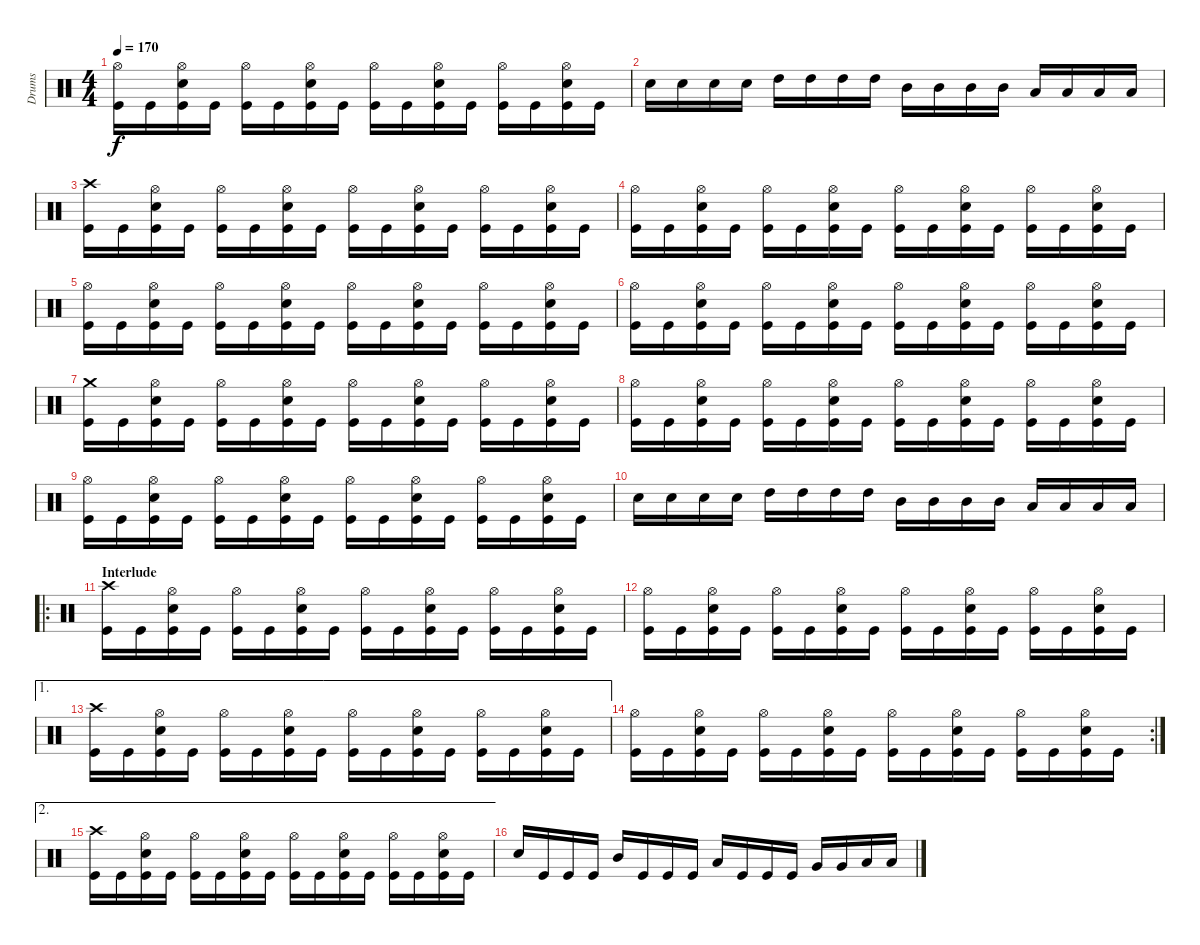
\track ("Drums" "Drums") {instrument percussion}
\staff {score}
\articulation defaults
\ts (4 4)
\tempo 170
\clef neutral
\ks c
("Hi-Hat (open)" "Kick (hit)").16{dy f} "Kick (hit)".16 ("Hi-Hat (open)" "Snare (hit) 2" "Kick (hit)").16 "Kick (hit)".16 ("Hi-Hat (open)" "Kick (hit)").16 "Kick (hit)".16 ("Hi-Hat (open)" "Snare (hit) 2" "Kick (hit)").16 "Kick (hit)".16 ("Hi-Hat (open)" "Kick (hit)").16 "Kick (hit)".16 ("Hi-Hat (open)" "Snare (hit) 2" "Kick (hit)").16 "Kick (hit)".16 ("Hi-Hat (open)" "Kick (hit)").16 "Kick (hit)".16 ("Hi-Hat (open)" "Snare (hit) 2" "Kick (hit)").16 "Kick (hit)".16 |
"Snare (hit) 2".16 "Snare (hit) 2".16 "Snare (hit) 2".16 "Snare (hit) 2".16 "High Tom (hit)".16 "High Tom (hit)".16 "High Tom (hit)".16 "High Tom (hit)".16 "Mid Tom (hit)".16 "Mid Tom (hit)".16 "Mid Tom (hit)".16 "Mid Tom (hit)".16 "Low Tom (hit)".16 "Low Tom (hit)".16 "Low Tom (hit)".16 "Low Tom (hit)".16 |
("Crash high (hit)" "Kick (hit)").16 "Kick (hit)".16 ("Hi-Hat (open)" "Snare (hit) 2" "Kick (hit)").16 "Kick (hit)".16 ("Hi-Hat (open)" "Kick (hit)").16 "Kick (hit)".16 ("Hi-Hat (open)" "Snare (hit) 2" "Kick (hit)").16 "Kick (hit)".16 ("Hi-Hat (open)" "Kick (hit)").16 "Kick (hit)".16 ("Hi-Hat (open)" "Snare (hit) 2" "Kick (hit)").16 "Kick (hit)".16 ("Hi-Hat (open)" "Kick (hit)").16 "Kick (hit)".16 ("Hi-Hat (open)" "Snare (hit) 2" "Kick (hit)").16 "Kick (hit)".16 |
("Hi-Hat (open)" "Kick (hit)").16 "Kick (hit)".16 ("Hi-Hat (open)" "Snare (hit) 2" "Kick (hit)").16 "Kick (hit)".16 ("Hi-Hat (open)" "Kick (hit)").16 "Kick (hit)".16 ("Hi-Hat (open)" "Snare (hit) 2" "Kick (hit)").16 "Kick (hit)".16 ("Hi-Hat (open)" "Kick (hit)").16 "Kick (hit)".16 ("Hi-Hat (open)" "Snare (hit) 2" "Kick (hit)").16 "Kick (hit)".16 ("Hi-Hat (open)" "Kick (hit)").16 "Kick (hit)".16 ("Hi-Hat (open)" "Snare (hit) 2" "Kick (hit)").16 "Kick (hit)".16 |
("Hi-Hat (open)" "Kick (hit)").16 "Kick (hit)".16 ("Hi-Hat (open)" "Snare (hit) 2" "Kick (hit)").16 "Kick (hit)".16 ("Hi-Hat (open)" "Kick (hit)").16 "Kick (hit)".16 ("Hi-Hat (open)" "Snare (hit) 2" "Kick (hit)").16 "Kick (hit)".16 ("Hi-Hat (open)" "Kick (hit)").16 "Kick (hit)".16 ("Hi-Hat (open)" "Snare (hit) 2" "Kick (hit)").16 "Kick (hit)".16 ("Hi-Hat (open)" "Kick (hit)").16 "Kick (hit)".16 ("Hi-Hat (open)" "Snare (hit) 2" "Kick (hit)").16 "Kick (hit)".16 |
("Hi-Hat (open)" "Kick (hit)").16 "Kick (hit)".16 ("Hi-Hat (open)" "Snare (hit) 2" "Kick (hit)").16 "Kick (hit)".16 ("Hi-Hat (open)" "Kick (hit)").16 "Kick (hit)".16 ("Hi-Hat (open)" "Snare (hit) 2" "Kick (hit)").16 "Kick (hit)".16 ("Hi-Hat (open)" "Kick (hit)").16 "Kick (hit)".16 ("Hi-Hat (open)" "Snare (hit) 2" "Kick (hit)").16 "Kick (hit)".16 ("Hi-Hat (open)" "Kick (hit)").16 "Kick (hit)".16 ("Hi-Hat (open)" "Snare (hit) 2" "Kick (hit)").16 "Kick (hit)".16 |
("Crash medium (hit)" "Kick (hit)").16 "Kick (hit)".16 ("Hi-Hat (open)" "Snare (hit) 2" "Kick (hit)").16 "Kick (hit)".16 ("Hi-Hat (open)" "Kick (hit)").16 "Kick (hit)".16 ("Hi-Hat (open)" "Snare (hit) 2" "Kick (hit)").16 "Kick (hit)".16 ("Hi-Hat (open)" "Kick (hit)").16 "Kick (hit)".16 ("Hi-Hat (open)" "Snare (hit) 2" "Kick (hit)").16 "Kick (hit)".16 ("Hi-Hat (open)" "Kick (hit)").16 "Kick (hit)".16 ("Hi-Hat (open)" "Snare (hit) 2" "Kick (hit)").16 "Kick (hit)".16 |
("Hi-Hat (open)" "Kick (hit)").16 "Kick (hit)".16 ("Hi-Hat (open)" "Snare (hit) 2" "Kick (hit)").16 "Kick (hit)".16 ("Hi-Hat (open)" "Kick (hit)").16 "Kick (hit)".16 ("Hi-Hat (open)" "Snare (hit) 2" "Kick (hit)").16 "Kick (hit)".16 ("Hi-Hat (open)" "Kick (hit)").16 "Kick (hit)".16 ("Hi-Hat (open)" "Snare (hit) 2" "Kick (hit)").16 "Kick (hit)".16 ("Hi-Hat (open)" "Kick (hit)").16 "Kick (hit)".16 ("Hi-Hat (open)" "Snare (hit) 2" "Kick (hit)").16 "Kick (hit)".16 |
("Hi-Hat (open)" "Kick (hit)").16 "Kick (hit)".16 ("Hi-Hat (open)" "Snare (hit) 2" "Kick (hit)").16 "Kick (hit)".16 ("Hi-Hat (open)" "Kick (hit)").16 "Kick (hit)".16 ("Hi-Hat (open)" "Snare (hit) 2" "Kick (hit)").16 "Kick (hit)".16 ("Hi-Hat (open)" "Kick (hit)").16 "Kick (hit)".16 ("Hi-Hat (open)" "Snare (hit) 2" "Kick (hit)").16 "Kick (hit)".16 ("Hi-Hat (open)" "Kick (hit)").16 "Kick (hit)".16 ("Hi-Hat (open)" "Snare (hit) 2" "Kick (hit)").16 "Kick (hit)".16 |
"Snare (hit) 2".16 "Snare (hit) 2".16 "Snare (hit) 2".16 "Snare (hit) 2".16 "High Tom (hit)".16 "High Tom (hit)".16 "High Tom (hit)".16 "High Tom (hit)".16 "Mid Tom (hit)".16 "Mid Tom (hit)".16 "Mid Tom (hit)".16 "Mid Tom (hit)".16 "Low Tom (hit)".16 "Low Tom (hit)".16 "Low Tom (hit)".16 "Low Tom (hit)".16 |
\ro
\section ("" "Interlude")
("Crash high (hit)" "Kick (hit)").16 "Kick (hit)".16 ("Hi-Hat (open)" "Snare (hit) 2" "Kick (hit)").16 "Kick (hit)".16 ("Hi-Hat (open)" "Kick (hit)").16 "Kick (hit)".16 ("Hi-Hat (open)" "Snare (hit) 2" "Kick (hit)").16 "Kick (hit)".16 ("Hi-Hat (open)" "Kick (hit)").16 "Kick (hit)".16 ("Hi-Hat (open)" "Snare (hit) 2" "Kick (hit)").16 "Kick (hit)".16 ("Hi-Hat (open)" "Kick (hit)").16 "Kick (hit)".16 ("Hi-Hat (open)" "Snare (hit) 2" "Kick (hit)").16 "Kick (hit)".16 |
("Hi-Hat (open)" "Kick (hit)").16 "Kick (hit)".16 ("Hi-Hat (open)" "Snare (hit) 2" "Kick (hit)").16 "Kick (hit)".16 ("Hi-Hat (open)" "Kick (hit)").16 "Kick (hit)".16 ("Hi-Hat (open)" "Snare (hit) 2" "Kick (hit)").16 "Kick (hit)".16 ("Hi-Hat (open)" "Kick (hit)").16 "Kick (hit)".16 ("Hi-Hat (open)" "Snare (hit) 2" "Kick (hit)").16 "Kick (hit)".16 ("Hi-Hat (open)" "Kick (hit)").16 "Kick (hit)".16 ("Hi-Hat (open)" "Snare (hit) 2" "Kick (hit)").16 "Kick (hit)".16 |
\ae 1
("Crash high (hit)" "Kick (hit)").16 "Kick (hit)".16 ("Hi-Hat (open)" "Snare (hit) 2" "Kick (hit)").16 "Kick (hit)".16 ("Hi-Hat (open)" "Kick (hit)").16 "Kick (hit)".16 ("Hi-Hat (open)" "Snare (hit) 2" "Kick (hit)").16 "Kick (hit)".16 ("Hi-Hat (open)" "Kick (hit)").16 "Kick (hit)".16 ("Hi-Hat (open)" "Snare (hit) 2" "Kick (hit)").16 "Kick (hit)".16 ("Hi-Hat (open)" "Kick (hit)").16 "Kick (hit)".16 ("Hi-Hat (open)" "Snare (hit) 2" "Kick (hit)").16 "Kick (hit)".16 |
\rc 2
("Hi-Hat (open)" "Kick (hit)").16 "Kick (hit)".16 ("Hi-Hat (open)" "Snare (hit) 2" "Kick (hit)").16 "Kick (hit)".16 ("Hi-Hat (open)" "Kick (hit)").16 "Kick (hit)".16 ("Hi-Hat (open)" "Snare (hit) 2" "Kick (hit)").16 "Kick (hit)".16 ("Hi-Hat (open)" "Kick (hit)").16 "Kick (hit)".16 ("Hi-Hat (open)" "Snare (hit) 2" "Kick (hit)").16 "Kick (hit)".16 ("Hi-Hat (open)" "Kick (hit)").16 "Kick (hit)".16 ("Hi-Hat (open)" "Snare (hit) 2" "Kick (hit)").16 "Kick (hit)".16 |
\ae 2
("Crash high (hit)" "Kick (hit)").16 "Kick (hit)".16 ("Hi-Hat (open)" "Snare (hit) 2" "Kick (hit)").16 "Kick (hit)".16 ("Hi-Hat (open)" "Kick (hit)").16 "Kick (hit)".16 ("Hi-Hat (open)" "Snare (hit) 2" "Kick (hit)").16 "Kick (hit)".16 ("Hi-Hat (open)" "Kick (hit)").16 "Kick (hit)".16 ("Hi-Hat (open)" "Snare (hit) 2" "Kick (hit)").16 "Kick (hit)".16 ("Hi-Hat (open)" "Kick (hit)").16 "Kick (hit)".16 ("Hi-Hat (open)" "Snare (hit) 2" "Kick (hit)").16 "Kick (hit)".16 |
"Snare (hit) 2".16 "Kick (hit)".16 "Kick (hit)".16 "Kick (hit)".16 "Mid Tom (hit)".16 "Kick (hit)".16 "Kick (hit)".16 "Kick (hit)".16 "Low Tom (hit)".16 "Kick (hit)".16 "Kick (hit)".16 "Kick (hit)".16 "Very Low Tom (hit)".16 "Very Low Tom (hit)".16 "Low Floor Tom (hit)".16 "Low Floor Tom (hit)".16
